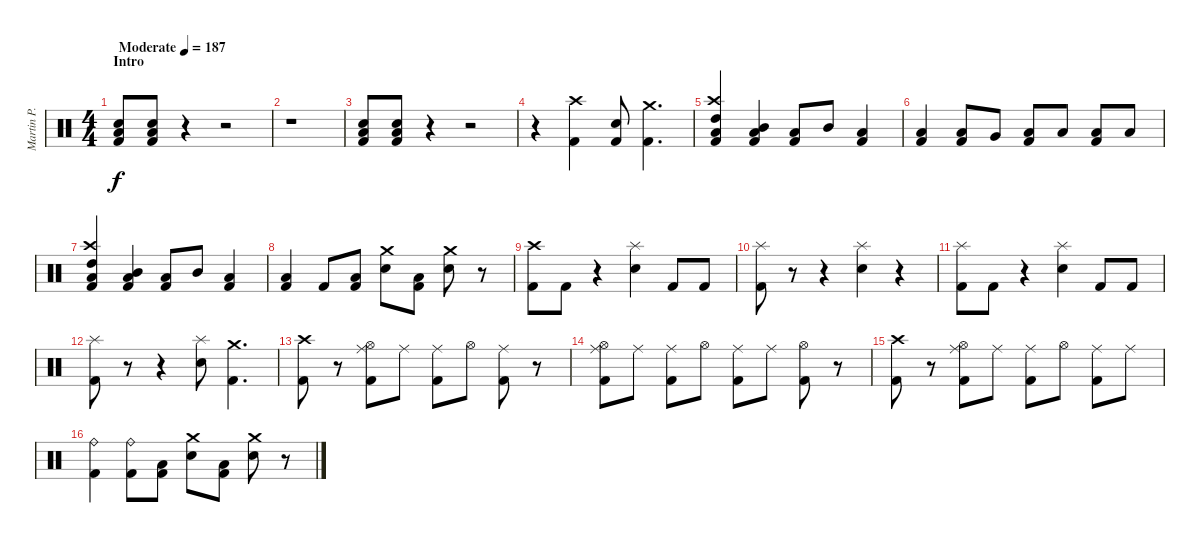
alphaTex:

\track ("Martin P." "Martin P.") {instrument percussion}
\staff {score}
\articulation defaults
\ts (4 4)
\section ("" "Intro")
\tempo (187 "Moderate")
\clef neutral
\ks c
("Kick (hit) 2" "Electric Snare (hit)" "Low Floor Tom (hit)").8{dy f} ("Kick (hit) 2" "Electric Snare (hit)" "Low Floor Tom (hit)").8 r.4 r.2 |
r.1 |
("Kick (hit) 2" "Electric Snare (hit)" "Low Floor Tom (hit)").8 ("Kick (hit) 2" "Electric Snare (hit)" "Low Floor Tom (hit)").8 r.4 r.2 |
r.4 ("Crash high (hit)" "Kick (hit) 2").4 ("Electric Snare (hit)" "Kick (hit) 2").8 ("Kick (hit) 2" "Crash medium (hit)").4{d} |
("Kick (hit) 2" "High Tom (hit)" "Low Floor Tom (hit)" "Crash high (hit)").4 ("Kick (hit) 2" "Mid Tom (hit)" "Low Floor Tom (hit)").4 ("Kick (hit) 2" "Low Floor Tom (hit)").8 "Mid Tom (hit)".8 ("Kick (hit) 2" "Low Floor Tom (hit)").4 |
("Kick (hit) 2" "Low Floor Tom (hit)").4 ("Kick (hit) 2" "Low Floor Tom (hit)").8 "Very Low Tom (hit)".8 ("Low Floor Tom (hit)" "Kick (hit) 2").8 "Low Floor Tom (hit)".8 ("Low Floor Tom (hit)" "Kick (hit) 2").8 "Low Floor Tom (hit)".8 |
("Kick (hit) 2" "High Tom (hit)" "Low Floor Tom (hit)" "Crash high (hit)").4 ("Kick (hit) 2" "Mid Tom (hit)" "Low Floor Tom (hit)").4 ("Kick (hit) 2" "Low Floor Tom (hit)").8 "Mid Tom (hit)".8 ("Kick (hit) 2" "Low Floor Tom (hit)").4 |
("Kick (hit) 2" "Low Floor Tom (hit)").4 "Kick (hit) 2".8 ("Kick (hit) 2" "Low Floor Tom (hit)").8 ("Electric Snare (hit)" "Crash medium (hit)").8 ("Kick (hit) 2" "Low Floor Tom (hit)").8 ("Electric Snare (hit)" "Crash medium (hit)").8 r.8 |
("Kick (hit) 2" "Crash high (hit)").8 "Kick (hit) 2".8 r.4 ("Electric Snare (hit)" "Splash (hit)").4 "Kick (hit) 2".8 "Kick (hit) 2".8 |
("Kick (hit) 2" "Splash (hit)").8 r.8 r.4 ("Splash (hit)" "Electric Snare (hit)").4 r.4 |
("Kick (hit) 2" "Splash (hit)").8 "Kick (hit) 2".8 r.4 ("Electric Snare (hit)" "Splash (hit)").4 "Kick (hit) 2".8 "Kick (hit) 2".8 |
("Kick (hit) 2" "Splash (hit)").8 r.8 r.4 ("Splash (hit)" "Electric Snare (hit)").8 ("Kick (hit) 2" "Crash medium (hit)").4{d} |
("Kick (hit) 2" "Crash high (hit)").8 r.8 ("Kick (hit) 2" "Ride (middle)" "Hi-Hat (open)").8 "Ride (middle)".8 ("Kick (hit) 2" "Ride (middle)").8 "Hi-Hat (open)".8 ("Kick (hit) 2" "Ride (middle)").8 r.8 |
("Kick (hit) 2" "Hi-Hat (open)" "Ride (middle)").8 "Ride (middle)".8 ("Kick (hit) 2" "Ride (middle)").8 "Hi-Hat (open)".8 ("Kick (hit) 2" "Ride (middle)").8 "Ride (middle)".8 ("Kick (hit) 2" "Hi-Hat (open)").8 r.8 |
("Kick (hit) 2" "Crash high (hit)").8 r.8 ("Kick (hit) 2" "Ride (middle)" "Hi-Hat (open)").8 "Ride (middle)".8 ("Kick (hit) 2" "Ride (middle)").8 "Hi-Hat (open)".8 ("Kick (hit) 2" "Ride (middle)").8 "Ride (middle)".8 |
("Kick (hit) 2" "Ride (bell)").4 ("Kick (hit) 2" "Ride (bell)").8 ("Kick (hit) 2" "Low Floor Tom (hit)").8 ("Electric Snare (hit)" "Crash medium (hit)").8 ("Kick (hit) 2" "Low Floor Tom (hit)").8 ("Electric Snare (hit)" "Crash medium (hit)").8 r.8
